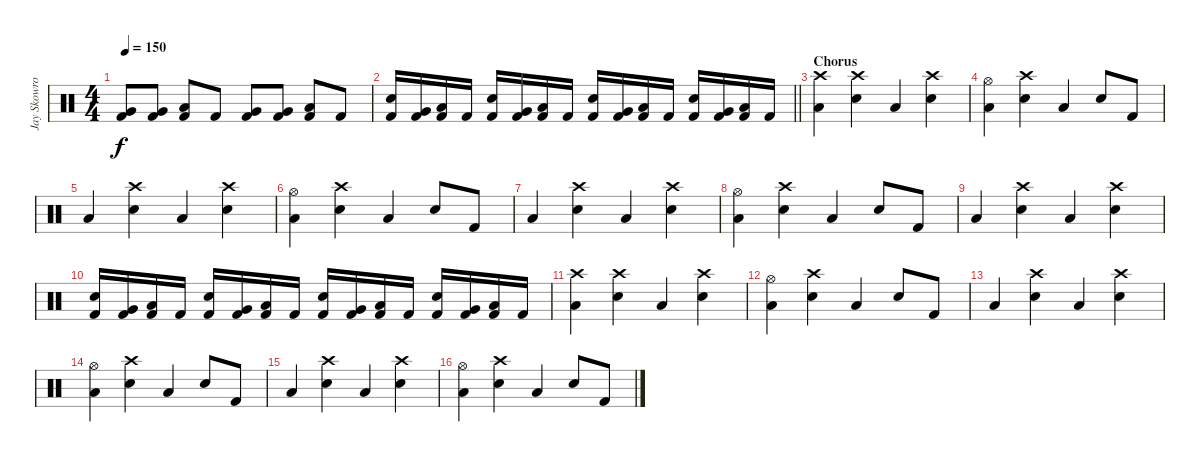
\track ("Jay Skowronek (Drums)" "Jay Skowro") {instrument percussion}
\staff {score}
\articulation defaults
\ts (4 4)
\tempo 150
\clef neutral
\ks c
("Very Low Tom (hit)" "Kick (hit) 2").8{dy f} ("Very Low Tom (hit)" "Kick (hit) 2").8 ("Low Floor Tom (hit)" "Kick (hit) 2").8 "Kick (hit) 2".8 ("Very Low Tom (hit)" "Kick (hit) 2").8 ("Very Low Tom (hit)" "Kick (hit) 2").8 ("Low Floor Tom (hit)" "Kick (hit) 2").8 "Kick (hit) 2".8 |
\barLineRight lightlight
("Electric Snare (hit)" "Kick (hit) 2").16 ("Very Low Tom (hit)" "Kick (hit) 2").16 ("Low Floor Tom (hit)" "Kick (hit) 2").16 "Kick (hit) 2".16 ("Electric Snare (hit)" "Kick (hit) 2").16 ("Very Low Tom (hit)" "Kick (hit) 2").16 ("Low Floor Tom (hit)" "Kick (hit) 2").16 "Kick (hit) 2".16 ("Electric Snare (hit)" "Kick (hit) 2").16 ("Very Low Tom (hit)" "Kick (hit) 2").16 ("Low Floor Tom (hit)" "Kick (hit) 2").16 "Kick (hit) 2".16 ("Electric Snare (hit)" "Kick (hit) 2").16 ("Very Low Tom (hit)" "Kick (hit) 2").16 ("Low Floor Tom (hit)" "Kick (hit) 2").16 "Kick (hit) 2".16 |
\section ("" "Chorus")
("Low Floor Tom (hit)" "Crash high (hit)").4 ("Electric Snare (hit)" "Crash high (hit)").4 "Low Floor Tom (hit)".4 ("Electric Snare (hit)" "Crash high (hit)").4 |
("Low Floor Tom (hit)" "Hi-Hat (open)").4 ("Electric Snare (hit)" "Crash high (hit)").4 "Low Floor Tom (hit)".4 "Electric Snare (hit)".8 "Kick (hit) 2".8 |
"Low Floor Tom (hit)".4 ("Electric Snare (hit)" "Crash high (hit)").4 "Low Floor Tom (hit)".4 ("Electric Snare (hit)" "Crash high (hit)").4 |
("Low Floor Tom (hit)" "Hi-Hat (open)").4 ("Electric Snare (hit)" "Crash high (hit)").4 "Low Floor Tom (hit)".4 "Electric Snare (hit)".8 "Kick (hit) 2".8 |
"Low Floor Tom (hit)".4 ("Electric Snare (hit)" "Crash high (hit)").4 "Low Floor Tom (hit)".4 ("Electric Snare (hit)" "Crash high (hit)").4 |
("Low Floor Tom (hit)" "Hi-Hat (open)").4 ("Electric Snare (hit)" "Crash high (hit)").4 "Low Floor Tom (hit)".4 "Electric Snare (hit)".8 "Kick (hit) 2".8 |
"Low Floor Tom (hit)".4 ("Electric Snare (hit)" "Crash high (hit)").4 "Low Floor Tom (hit)".4 ("Electric Snare (hit)" "Crash high (hit)").4 |
("Electric Snare (hit)" "Kick (hit) 2").16 ("Very Low Tom (hit)" "Kick (hit) 2").16 ("Low Floor Tom (hit)" "Kick (hit) 2").16 "Kick (hit) 2".16 ("Electric Snare (hit)" "Kick (hit) 2").16 ("Very Low Tom (hit)" "Kick (hit) 2").16 ("Low Floor Tom (hit)" "Kick (hit) 2").16 "Kick (hit) 2".16 ("Electric Snare (hit)" "Kick (hit) 2").16 ("Very Low Tom (hit)" "Kick (hit) 2").16 ("Low Floor Tom (hit)" "Kick (hit) 2").16 "Kick (hit) 2".16 ("Electric Snare (hit)" "Kick (hit) 2").16 ("Very Low Tom (hit)" "Kick (hit) 2").16 ("Low Floor Tom (hit)" "Kick (hit) 2").16 "Kick (hit) 2".16 |
("Low Floor Tom (hit)" "Crash high (hit)").4 ("Electric Snare (hit)" "Crash high (hit)").4 "Low Floor Tom (hit)".4 ("Electric Snare (hit)" "Crash high (hit)").4 |
("Low Floor Tom (hit)" "Hi-Hat (open)").4 ("Electric Snare (hit)" "Crash high (hit)").4 "Low Floor Tom (hit)".4 "Electric Snare (hit)".8 "Kick (hit) 2".8 |
"Low Floor Tom (hit)".4 ("Electric Snare (hit)" "Crash high (hit)").4 "Low Floor Tom (hit)".4 ("Electric Snare (hit)" "Crash high (hit)").4 |
("Low Floor Tom (hit)" "Hi-Hat (open)").4 ("Electric Snare (hit)" "Crash high (hit)").4 "Low Floor Tom (hit)".4 "Electric Snare (hit)".8 "Kick (hit) 2".8 |
"Low Floor Tom (hit)".4 ("Electric Snare (hit)" "Crash high (hit)").4 "Low Floor Tom (hit)".4 ("Electric Snare (hit)" "Crash high (hit)").4 |
("Low Floor Tom (hit)" "Hi-Hat (open)").4 ("Electric Snare (hit)" "Crash high (hit)").4 "Low Floor Tom (hit)".4 "Electric Snare (hit)".8 "Kick (hit) 2".8
